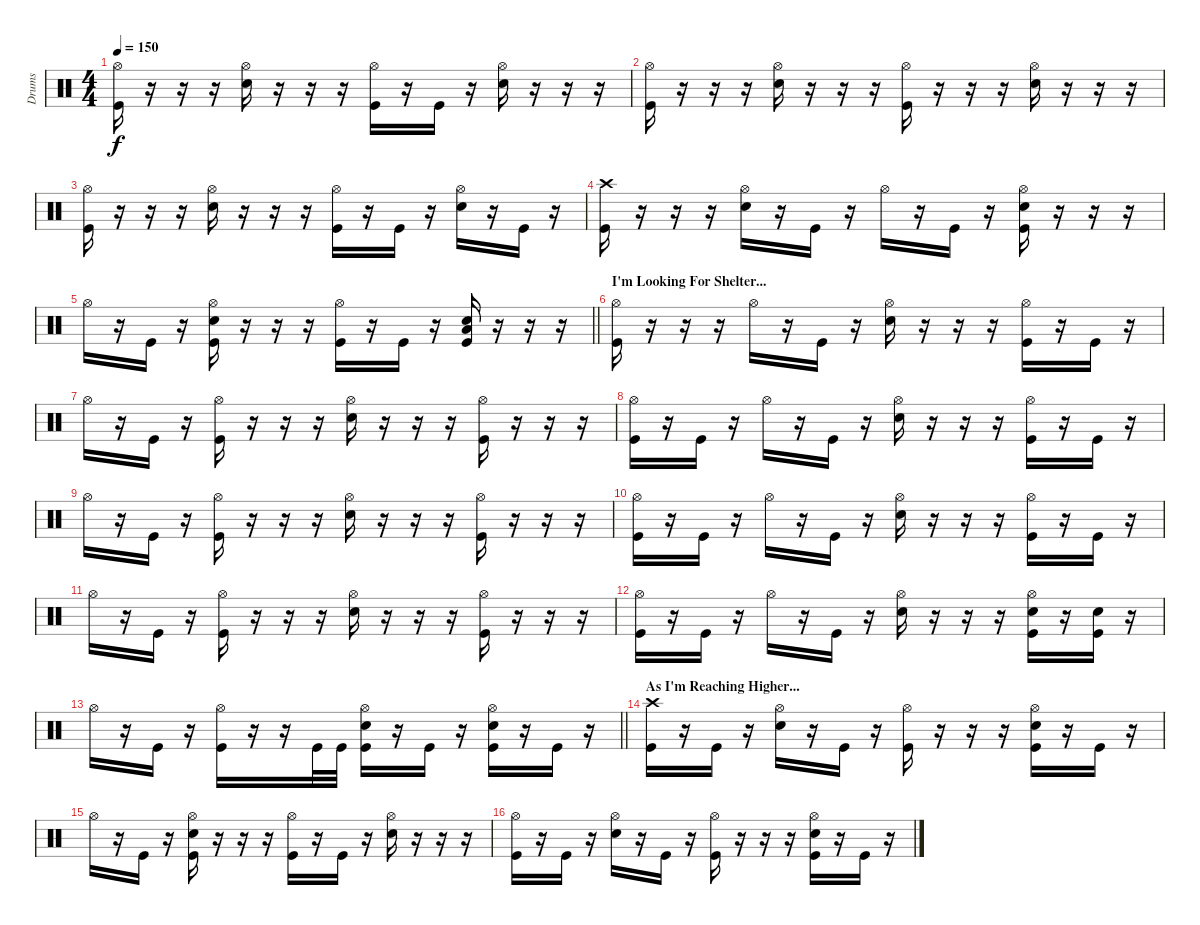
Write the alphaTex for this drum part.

\track ("Drums" "Drums") {instrument percussion}
\staff {score}
\articulation defaults
\ts (4 4)
\tempo 150
\clef neutral
\ks c
("Hi-Hat (open)" "Kick (hit)").16{dy f} r.16 r.16 r.16 ("Hi-Hat (open)" "Snare (hit) 2").16 r.16 r.16 r.16 ("Hi-Hat (open)" "Kick (hit)").16 r.16 "Kick (hit)".16 r.16 ("Hi-Hat (open)" "Snare (hit) 2").16 r.16 r.16 r.16 |
("Hi-Hat (open)" "Kick (hit)").16 r.16 r.16 r.16 ("Hi-Hat (open)" "Snare (hit) 2").16 r.16 r.16 r.16 ("Hi-Hat (open)" "Kick (hit)").16 r.16 r.16 r.16 ("Hi-Hat (open)" "Snare (hit) 2").16 r.16 r.16 r.16 |
("Hi-Hat (open)" "Kick (hit)").16 r.16 r.16 r.16 ("Hi-Hat (open)" "Snare (hit) 2").16 r.16 r.16 r.16 ("Hi-Hat (open)" "Kick (hit)").16 r.16 "Kick (hit)".16 r.16 ("Hi-Hat (open)" "Snare (hit) 2").16 r.16 "Kick (hit)".16 r.16 |
("Crash high (hit)" "Kick (hit)").16 r.16 r.16 r.16 ("Hi-Hat (open)" "Snare (hit) 2").16 r.16 "Kick (hit)".16 r.16 "Hi-Hat (open)".16 r.16 "Kick (hit)".16 r.16 ("Hi-Hat (open)" "Snare (hit) 2" "Kick (hit)").16 r.16 r.16 r.16 |
\barLineRight lightlight "Hi-Hat (open)".16
r.16 "Kick (hit)".16 r.16 ("Hi-Hat (open)" "Snare (hit) 2" "Kick (hit)").16 r.16 r.16 r.16 ("Hi-Hat (open)" "Kick (hit)").16 r.16 "Kick (hit)".16 r.16 ("Low Floor Tom (hit)" "Snare (hit) 2" "Kick (hit)").16 r.16 r.16 r.16 |
\section ("" "I'm Looking For Shelter...")
("Hi-Hat (open)" "Kick (hit)").16 r.16 r.16 r.16 "Hi-Hat (open)".16 r.16 "Kick (hit)".16 r.16 ("Hi-Hat (open)" "Snare (hit) 2").16 r.16 r.16 r.16 ("Hi-Hat (open)" "Kick (hit)").16 r.16 "Kick (hit)".16 r.16 |
"Hi-Hat (open)".16 r.16 "Kick (hit)".16 r.16 ("Hi-Hat (open)" "Kick (hit)").16 r.16 r.16 r.16 ("Hi-Hat (open)" "Snare (hit) 2").16 r.16 r.16 r.16 ("Hi-Hat (open)" "Kick (hit)").16 r.16 r.16 r.16 |
("Hi-Hat (open)" "Kick (hit)").16 r.16 "Kick (hit)".16 r.16 "Hi-Hat (open)".16 r.16 "Kick (hit)".16 r.16 ("Hi-Hat (open)" "Snare (hit) 2").16 r.16 r.16 r.16 ("Hi-Hat (open)" "Kick (hit)").16 r.16 "Kick (hit)".16 r.16 |
"Hi-Hat (open)".16 r.16 "Kick (hit)".16 r.16 ("Hi-Hat (open)" "Kick (hit)").16 r.16 r.16 r.16 ("Hi-Hat (open)" "Snare (hit) 2").16 r.16 r.16 r.16 ("Hi-Hat (open)" "Kick (hit)").16 r.16 r.16 r.16 |
("Hi-Hat (open)" "Kick (hit)").16 r.16 "Kick (hit)".16 r.16 "Hi-Hat (open)".16 r.16 "Kick (hit)".16 r.16 ("Hi-Hat (open)" "Snare (hit) 2").16 r.16 r.16 r.16 ("Hi-Hat (open)" "Kick (hit)").16 r.16 "Kick (hit)".16 r.16 |
"Hi-Hat (open)".16 r.16 "Kick (hit)".16 r.16 ("Hi-Hat (open)" "Kick (hit)").16 r.16 r.16 r.16 ("Hi-Hat (open)" "Snare (hit) 2").16 r.16 r.16 r.16 ("Hi-Hat (open)" "Kick (hit)").16 r.16 r.16 r.16 |
("Hi-Hat (open)" "Kick (hit)").16 r.16 "Kick (hit)".16 r.16 "Hi-Hat (open)".16 r.16 "Kick (hit)".16 r.16 ("Hi-Hat (open)" "Snare (hit) 2").16 r.16 r.16 r.16 ("Hi-Hat (open)" "Snare (hit) 2" "Kick (hit)").16 r.16 ("Snare (hit) 2" "Kick (hit)").16 r.16 |
\barLineRight lightlight "Hi-Hat (open)".16
r.16 "Kick (hit)".16 r.16 ("Hi-Hat (open)" "Kick (hit)").16 r.16 r.16 "Kick (hit)".32 "Kick (hit)".32 ("Hi-Hat (open)" "Snare (hit) 2" "Kick (hit)").16 r.16 "Kick (hit)".16 r.16 ("Hi-Hat (open)" "Snare (hit) 2" "Kick (hit)").16 r.16 "Kick (hit)".16 r.16 |
\section ("" "As I'm Reaching Higher...")
("Crash high (hit)" "Kick (hit)").16 r.16 "Kick (hit)".16 r.16 ("Hi-Hat (open)" "Snare (hit) 2").16 r.16 "Kick (hit)".16 r.16 ("Hi-Hat (open)" "Kick (hit)").16 r.16 r.16 r.16 ("Hi-Hat (open)" "Snare (hit) 2" "Kick (hit)").16 r.16 "Kick (hit)".16 r.16 |
"Hi-Hat (open)".16 r.16 "Kick (hit)".16 r.16 ("Hi-Hat (open)" "Snare (hit) 2" "Kick (hit)").16 r.16 r.16 r.16 ("Hi-Hat (open)" "Kick (hit)").16 r.16 "Kick (hit)".16 r.16 ("Hi-Hat (open)" "Snare (hit) 2").16 r.16 r.16 r.16 |
("Hi-Hat (open)" "Kick (hit)").16 r.16 "Kick (hit)".16 r.16 ("Hi-Hat (open)" "Snare (hit) 2").16 r.16 "Kick (hit)".16 r.16 ("Hi-Hat (open)" "Kick (hit)").16 r.16 r.16 r.16 ("Hi-Hat (open)" "Snare (hit) 2" "Kick (hit)").16 r.16 "Kick (hit)".16 r.16
